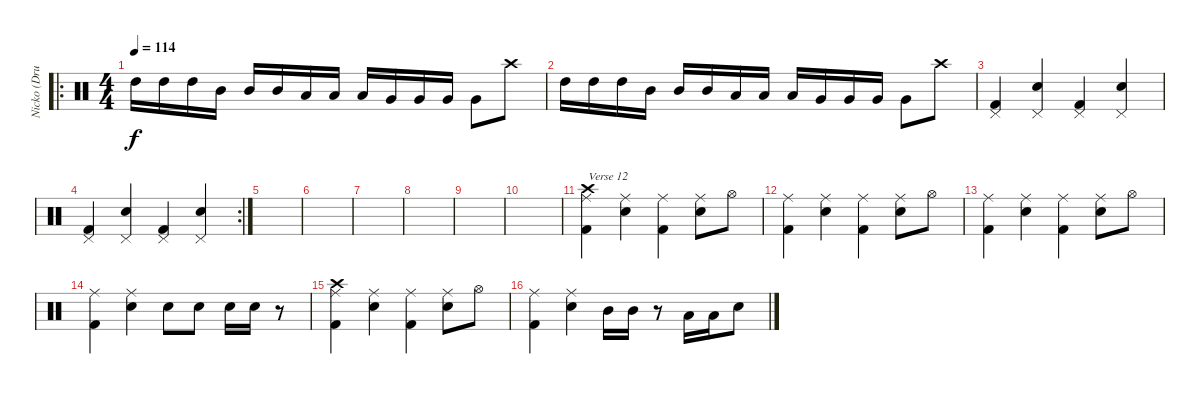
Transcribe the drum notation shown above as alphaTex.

\track ("Nicko (Drums)" "Nicko (Dru") {instrument percussion}
\staff {score}
\articulation defaults
\ro
\ts (4 4)
\tempo 114
\clef neutral
\ks c "High Tom (hit)".16{dy f} "High Tom (hit)".16 "High Tom (hit)".16 "Mid Tom (hit)".16 "Mid Tom (hit)".16 "Mid Tom (hit)".16 "Low Tom (hit)".16 "Low Tom (hit)".16 "Low Tom (hit)".16 "Very Low Tom (hit)".16 "Very Low Tom (hit)".16 "Very Low Tom (hit)".16 "Very Low Tom (hit)".8 "Crash high (hit)".8
|
"High Tom (hit)".16 "High Tom (hit)".16 "High Tom (hit)".16 "Mid Tom (hit)".16 "Mid Tom (hit)".16 "Mid Tom (hit)".16 "Low Tom (hit)".16 "Low Tom (hit)".16 "Low Tom (hit)".16 "Very Low Tom (hit)".16 "Very Low Tom (hit)".16 "Very Low Tom (hit)".16 "Very Low Tom (hit)".8 "Crash high (hit)".8 |
("Pedal Hi-Hat (hit)" "Kick (hit) 2").4 ("Pedal Hi-Hat (hit)" "Snare (hit) 2").4 ("Pedal Hi-Hat (hit)" "Kick (hit) 2").4 ("Pedal Hi-Hat (hit)" "Snare (hit) 2").4 |
\rc 2
("Pedal Hi-Hat (hit)" "Kick (hit) 2").4 ("Pedal Hi-Hat (hit)" "Snare (hit) 2").4 ("Pedal Hi-Hat (hit)" "Kick (hit) 2").4 ("Pedal Hi-Hat (hit)" "Snare (hit) 2").4 |
|
|
|
|
|
|
("Ride (middle)" "Kick (hit) 2" "Crash high (hit)").4{txt "Verse 12"} ("Ride (middle)" "Snare (hit) 2").4 ("Ride (middle)" "Kick (hit) 2").4 ("Ride (middle)" "Snare (hit) 2").8 "Hi-Hat (open)".8 |
("Ride (middle)" "Kick (hit) 2").4 ("Ride (middle)" "Snare (hit) 2").4 ("Ride (middle)" "Kick (hit) 2").4 ("Ride (middle)" "Snare (hit) 2").8 "Hi-Hat (open)".8 |
("Ride (middle)" "Kick (hit) 2").4 ("Ride (middle)" "Snare (hit) 2").4 ("Ride (middle)" "Kick (hit) 2").4 ("Ride (middle)" "Snare (hit) 2").8 "Hi-Hat (open)".8 |
("Ride (middle)" "Kick (hit) 2").4 ("Ride (middle)" "Snare (hit) 2").4 "Snare (hit) 2".8 "Snare (hit) 2".8 "Snare (hit) 2".16 "Snare (hit) 2".16 r.8 |
("Ride (middle)" "Kick (hit) 2" "Crash high (hit)").4 ("Ride (middle)" "Snare (hit) 2").4 ("Ride (middle)" "Kick (hit) 2").4 ("Ride (middle)" "Snare (hit) 2").8 "Hi-Hat (open)".8 |
("Ride (middle)" "Kick (hit) 2").4 ("Ride (middle)" "Snare (hit) 2").4 "Mid Tom (hit)".16 "Mid Tom (hit)".16 r.8 "Low Tom (hit)".16 "Low Tom (hit)".16 "Snare (hit) 2".8
